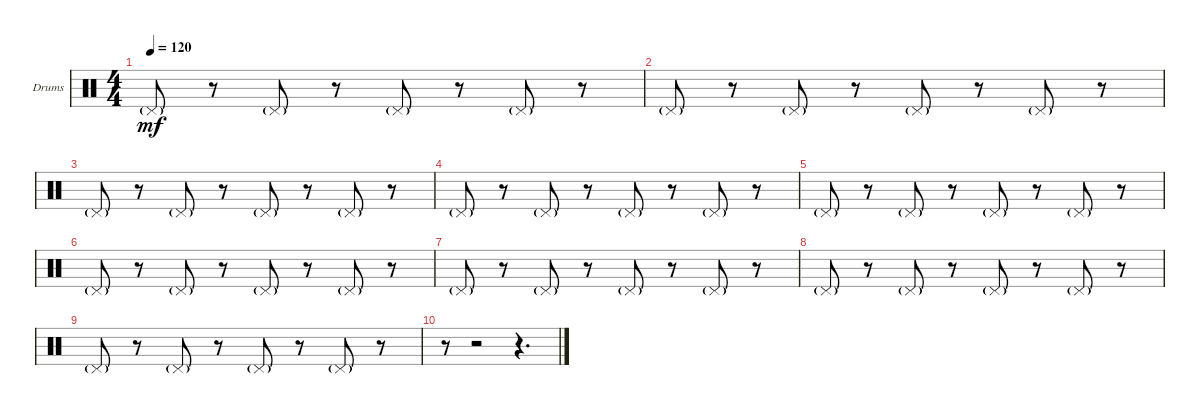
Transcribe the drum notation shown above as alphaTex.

\bracketExtendMode groupsimilarinstruments
\firstSystemTrackNameOrientation horizontal
\otherSystemsTrackNameOrientation horizontal
\track ("Drumkit" "Drums") {instrument percussion}
\staff {score}
\articulation defaults
\ts (4 4)
\tempo 120
\clef neutral
\ks c "Pedal Hi-Hat (hit)"{g}.8{dy mf}
r.8 "Pedal Hi-Hat (hit)"{g}.8 r.8 "Pedal Hi-Hat (hit)"{g}.8 r.8 "Pedal Hi-Hat (hit)"{g}.8 r.8 |
"Pedal Hi-Hat (hit)"{g}.8 r.8 "Pedal Hi-Hat (hit)"{g}.8 r.8 "Pedal Hi-Hat (hit)"{g}.8 r.8 "Pedal Hi-Hat (hit)"{g}.8 r.8 |
"Pedal Hi-Hat (hit)"{g}.8 r.8 "Pedal Hi-Hat (hit)"{g}.8 r.8 "Pedal Hi-Hat (hit)"{g}.8 r.8 "Pedal Hi-Hat (hit)"{g}.8 r.8 |
"Pedal Hi-Hat (hit)"{g}.8 r.8 "Pedal Hi-Hat (hit)"{g}.8 r.8 "Pedal Hi-Hat (hit)"{g}.8 r.8 "Pedal Hi-Hat (hit)"{g}.8 r.8 |
"Pedal Hi-Hat (hit)"{g}.8 r.8 "Pedal Hi-Hat (hit)"{g}.8 r.8 "Pedal Hi-Hat (hit)"{g}.8 r.8 "Pedal Hi-Hat (hit)"{g}.8 r.8 |
"Pedal Hi-Hat (hit)"{g}.8 r.8 "Pedal Hi-Hat (hit)"{g}.8 r.8 "Pedal Hi-Hat (hit)"{g}.8 r.8 "Pedal Hi-Hat (hit)"{g}.8 r.8 |
"Pedal Hi-Hat (hit)"{g}.8 r.8 "Pedal Hi-Hat (hit)"{g}.8 r.8 "Pedal Hi-Hat (hit)"{g}.8 r.8 "Pedal Hi-Hat (hit)"{g}.8 r.8 |
"Pedal Hi-Hat (hit)"{g}.8 r.8 "Pedal Hi-Hat (hit)"{g}.8 r.8 "Pedal Hi-Hat (hit)"{g}.8 r.8 "Pedal Hi-Hat (hit)"{g}.8 r.8 |
"Pedal Hi-Hat (hit)"{g}.8 r.8 "Pedal Hi-Hat (hit)"{g}.8 r.8 "Pedal Hi-Hat (hit)"{g}.8 r.8 "Pedal Hi-Hat (hit)"{g}.8 r.8 |
r.8 r.2 r.4{d}
